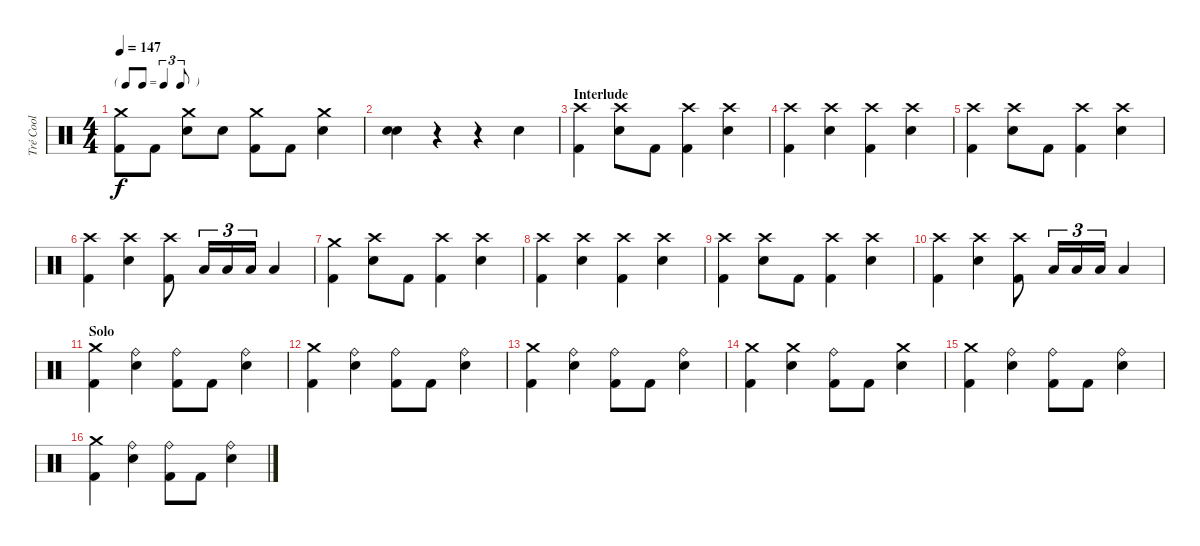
\track ("Tré Cool" "Tré Cool") {instrument percussion}
\staff {score}
\articulation defaults
\ts (4 4)
\tf triplet8th
\tempo 147
\clef neutral
\ks c
("Crash medium (hit)" "Kick (hit) 2").8{dy f} "Kick (hit) 2".8 ("Crash medium (hit)" "Snare (hit) 2").8 "Snare (hit) 2".8 ("Crash medium (hit)" "Kick (hit) 2").8 "Kick (hit) 2".8 ("Crash medium (hit)" "Snare (hit) 2").4 |
("Snare (hit) 2" "Snare (hit) 2").4{bu 480} r.4 r.4 "Snare (hit) 2".4 |
\section ("" "Interlude")
("Crash high (hit)" "Kick (hit) 2").4 ("Crash high (hit)" "Snare (hit) 2").8 "Kick (hit) 2".8 ("Crash high (hit)" "Kick (hit) 2").4 ("Crash high (hit)" "Snare (hit) 2").4 |
("Crash high (hit)" "Kick (hit) 2").4 ("Crash high (hit)" "Snare (hit) 2").4 ("Crash high (hit)" "Kick (hit) 2").4 ("Crash high (hit)" "Snare (hit) 2").4 |
("Crash high (hit)" "Kick (hit) 2").4 ("Crash high (hit)" "Snare (hit) 2").8 "Kick (hit) 2".8 ("Crash high (hit)" "Kick (hit) 2").4 ("Crash high (hit)" "Snare (hit) 2").4 |
("Crash high (hit)" "Kick (hit) 2").4 ("Crash high (hit)" "Snare (hit) 2").4 ("Crash high (hit)" "Kick (hit) 2").8 "Low Tom (hit)".16{tu (3 2)} "Low Tom (hit)".16{tu (3 2)} "Low Tom (hit)".16{tu (3 2)} "Low Tom (hit)".4 |
("Crash medium (hit)" "Kick (hit) 2").4 ("Crash high (hit)" "Snare (hit) 2").8 "Kick (hit) 2".8 ("Crash high (hit)" "Kick (hit) 2").4 ("Crash high (hit)" "Snare (hit) 2").4 |
("Crash high (hit)" "Kick (hit) 2").4 ("Crash high (hit)" "Snare (hit) 2").4 ("Crash high (hit)" "Kick (hit) 2").4 ("Crash high (hit)" "Snare (hit) 2").4 |
("Crash high (hit)" "Kick (hit) 2").4 ("Crash high (hit)" "Snare (hit) 2").8 "Kick (hit) 2".8 ("Crash high (hit)" "Kick (hit) 2").4 ("Crash high (hit)" "Snare (hit) 2").4 |
("Crash high (hit)" "Kick (hit) 2").4 ("Crash high (hit)" "Snare (hit) 2").4 ("Crash high (hit)" "Kick (hit) 2").8 "Low Tom (hit)".16{tu (3 2)} "Low Tom (hit)".16{tu (3 2)} "Low Tom (hit)".16{tu (3 2)} "Low Tom (hit)".4 |
\section ("" "Solo")
("Crash medium (hit)" "Kick (hit) 2").4 ("Ride (bell)" "Snare (hit) 2").4 ("Ride (bell)" "Kick (hit) 2").8 "Kick (hit) 2".8 ("Ride (bell)" "Snare (hit) 2").4 |
("Crash medium (hit)" "Kick (hit) 2").4 ("Ride (bell)" "Snare (hit) 2").4 ("Ride (bell)" "Kick (hit) 2").8 "Kick (hit) 2".8 ("Ride (bell)" "Snare (hit) 2").4 |
("Crash medium (hit)" "Kick (hit) 2").4 ("Ride (bell)" "Snare (hit) 2").4 ("Ride (bell)" "Kick (hit) 2").8 "Kick (hit) 2".8 ("Ride (bell)" "Snare (hit) 2").4 |
("Crash medium (hit)" "Kick (hit) 2").4 ("Crash medium (hit)" "Snare (hit) 2").4 ("Ride (bell)" "Kick (hit) 2").8 "Kick (hit) 2".8 ("Crash medium (hit)" "Snare (hit) 2").4 |
("Crash medium (hit)" "Kick (hit) 2").4 ("Ride (bell)" "Snare (hit) 2").4 ("Ride (bell)" "Kick (hit) 2").8 "Kick (hit) 2".8 ("Ride (bell)" "Snare (hit) 2").4 |
("Crash medium (hit)" "Kick (hit) 2").4 ("Ride (bell)" "Snare (hit) 2").4 ("Ride (bell)" "Kick (hit) 2").8 "Kick (hit) 2".8 ("Ride (bell)" "Snare (hit) 2").4
